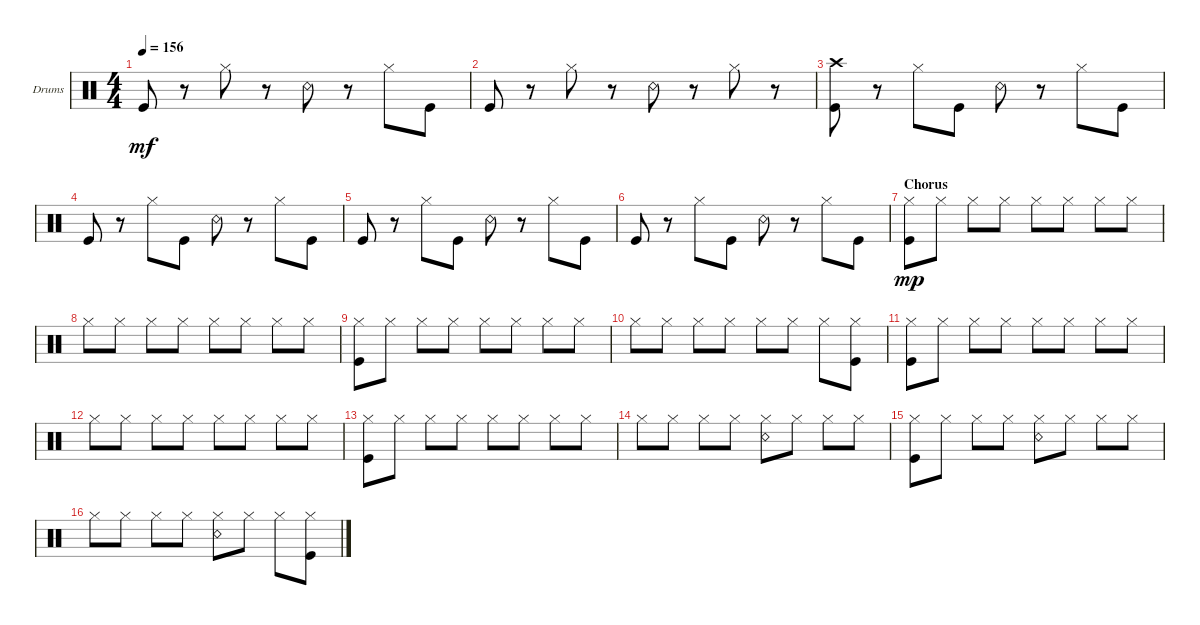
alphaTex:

\defaultSystemsLayout 4
\bracketExtendMode groupsimilarinstruments
\firstSystemTrackNameOrientation horizontal
\otherSystemsTrackNameOrientation horizontal
\track ("Drumkit" "Drums") {instrument percussion}
\staff {score}
\articulation defaults
\ts (4 4)
\tempo 156
\clef neutral
\ks c "Kick (hit)".8{dy mf}
r.8 "Hi-Hat (closed)".8 r.8 "Snare (rim shot)".8 r.8 "Hi-Hat (closed)".8 "Kick (hit)".8 |
"Kick (hit)".8 r.8 "Hi-Hat (closed)".8 r.8 "Snare (rim shot)".8 r.8 "Hi-Hat (closed)".8 r.8 |
("Crash high (hit)" "Kick (hit)").8 r.8 "Hi-Hat (closed)".8 "Kick (hit)".8 "Snare (rim shot)".8 r.8 "Hi-Hat (closed)".8 "Kick (hit)".8 |
"Kick (hit)".8 r.8 "Hi-Hat (closed)".8 "Kick (hit)".8 "Snare (rim shot)".8 r.8 "Hi-Hat (closed)".8 "Kick (hit)".8 |
"Kick (hit)".8 r.8 "Hi-Hat (closed)".8 "Kick (hit)".8 "Snare (rim shot)".8 r.8 "Hi-Hat (closed)".8 "Kick (hit)".8 |
"Kick (hit)".8 r.8 "Hi-Hat (closed)".8 "Kick (hit)".8 "Snare (rim shot)".8 r.8 "Hi-Hat (closed)".8 "Kick (hit)".8 |
\section ("" "Chorus")
("Hi-Hat (closed)" "Kick (hit)").8{dy mp} "Hi-Hat (closed)".8 "Hi-Hat (closed)".8 "Hi-Hat (closed)".8 "Hi-Hat (closed)".8 "Hi-Hat (closed)".8 "Hi-Hat (closed)".8 "Hi-Hat (closed)".8 |
"Hi-Hat (closed)".8 "Hi-Hat (closed)".8 "Hi-Hat (closed)".8 "Hi-Hat (closed)".8 "Hi-Hat (closed)".8 "Hi-Hat (closed)".8 "Hi-Hat (closed)".8 "Hi-Hat (closed)".8 |
("Hi-Hat (closed)" "Kick (hit)").8 "Hi-Hat (closed)".8 "Hi-Hat (closed)".8 "Hi-Hat (closed)".8 "Hi-Hat (closed)".8 "Hi-Hat (closed)".8 "Hi-Hat (closed)".8 "Hi-Hat (closed)".8 |
"Hi-Hat (closed)".8 "Hi-Hat (closed)".8 "Hi-Hat (closed)".8 "Hi-Hat (closed)".8 "Hi-Hat (closed)".8 "Hi-Hat (closed)".8 "Hi-Hat (closed)".8 ("Hi-Hat (closed)" "Kick (hit)").8 |
("Hi-Hat (closed)" "Kick (hit)").8 "Hi-Hat (closed)".8 "Hi-Hat (closed)".8 "Hi-Hat (closed)".8 "Hi-Hat (closed)".8 "Hi-Hat (closed)".8 "Hi-Hat (closed)".8 "Hi-Hat (closed)".8 |
"Hi-Hat (closed)".8 "Hi-Hat (closed)".8 "Hi-Hat (closed)".8 "Hi-Hat (closed)".8 "Hi-Hat (closed)".8 "Hi-Hat (closed)".8 "Hi-Hat (closed)".8 "Hi-Hat (closed)".8 |
("Hi-Hat (closed)" "Kick (hit)").8 "Hi-Hat (closed)".8 "Hi-Hat (closed)".8 "Hi-Hat (closed)".8 "Hi-Hat (closed)".8 "Hi-Hat (closed)".8 "Hi-Hat (closed)".8 "Hi-Hat (closed)".8 |
"Hi-Hat (closed)".8 "Hi-Hat (closed)".8 "Hi-Hat (closed)".8 "Hi-Hat (closed)".8 ("Hi-Hat (closed)" "Snare (rim shot)").8 "Hi-Hat (closed)".8 "Hi-Hat (closed)".8 "Hi-Hat (closed)".8 |
("Hi-Hat (closed)" "Kick (hit)").8 "Hi-Hat (closed)".8 "Hi-Hat (closed)".8 "Hi-Hat (closed)".8 ("Hi-Hat (closed)" "Snare (rim shot)").8 "Hi-Hat (closed)".8 "Hi-Hat (closed)".8 "Hi-Hat (closed)".8 |
"Hi-Hat (closed)".8 "Hi-Hat (closed)".8 "Hi-Hat (closed)".8 "Hi-Hat (closed)".8 ("Hi-Hat (closed)" "Snare (rim shot)").8 "Hi-Hat (closed)".8 "Hi-Hat (closed)".8 ("Hi-Hat (closed)" "Kick (hit)").8
